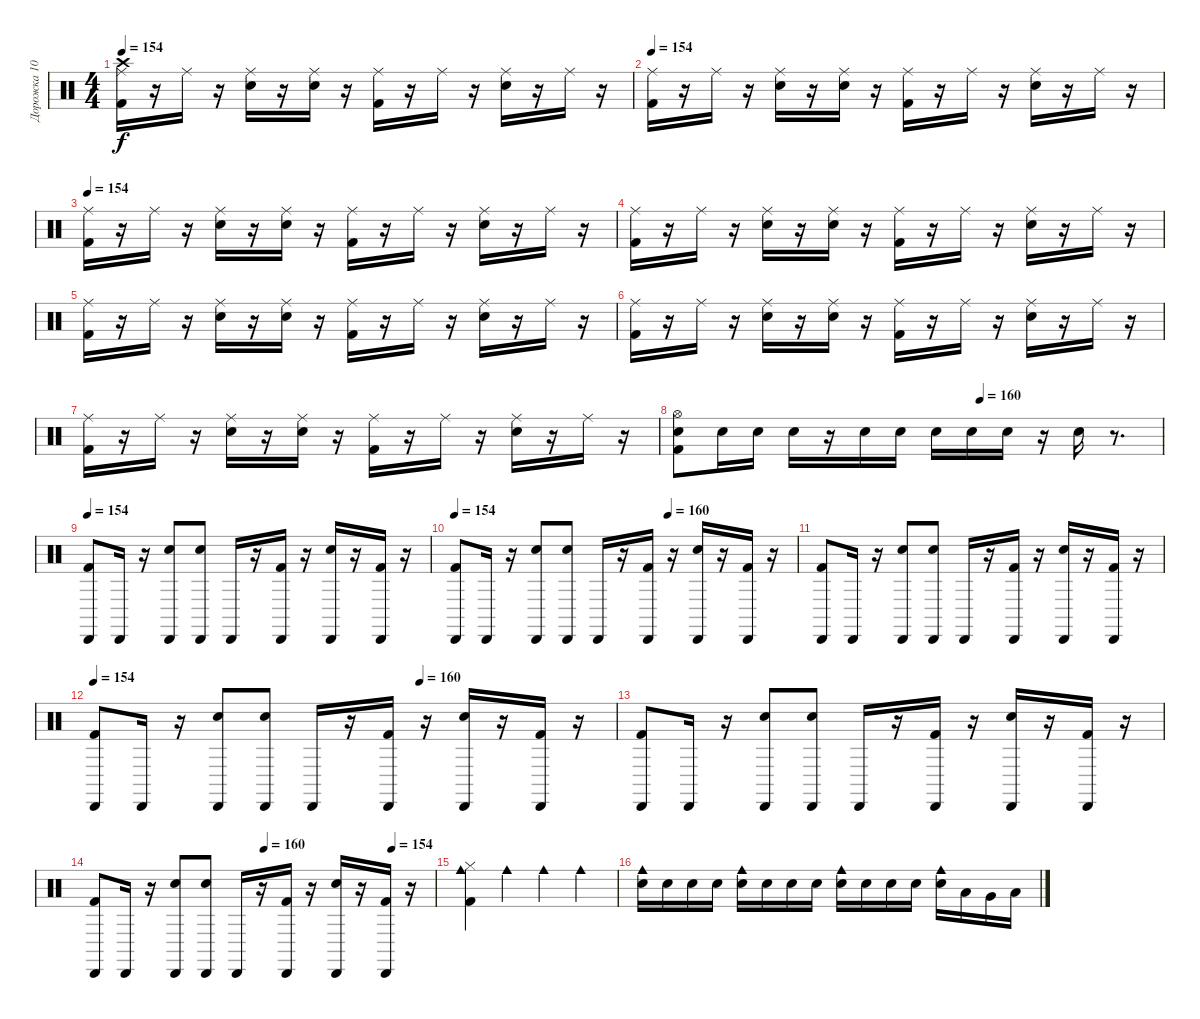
\track ("Дорожка 10" "Дорожка 10") {instrument percussion}
\staff {score}
\articulation defaults
\ts (4 4)
\tempo 154
\clef neutral
\ks c
("Ride (middle)" "Crash high (hit)" "Kick (hit) 2").16{dy f} r.16 "Ride (middle)".16 r.16 ("Ride (middle)" "Electric Snare (hit)").16 r.16 ("Ride (middle)" "Electric Snare (hit)").16 r.16 ("Ride (middle)" "Kick (hit) 2").16 r.16 "Ride (middle)".16 r.16 ("Ride (middle)" "Electric Snare (hit)").16 r.16 "Ride (middle)".16 r.16 |
\tempo 154
("Ride (middle)" "Kick (hit) 2").16 r.16 "Ride (middle)".16 r.16 ("Ride (middle)" "Electric Snare (hit)").16 r.16 ("Ride (middle)" "Electric Snare (hit)").16 r.16 ("Ride (middle)" "Kick (hit) 2").16 r.16 "Ride (middle)".16 r.16 ("Ride (middle)" "Electric Snare (hit)").16 r.16 "Ride (middle)".16 r.16 |
\tempo 154
("Ride (middle)" "Kick (hit) 2").16 r.16 "Ride (middle)".16 r.16 ("Ride (middle)" "Electric Snare (hit)").16 r.16 ("Ride (middle)" "Electric Snare (hit)").16 r.16 ("Ride (middle)" "Kick (hit) 2").16 r.16 "Ride (middle)".16 r.16 ("Ride (middle)" "Electric Snare (hit)").16 r.16 "Ride (middle)".16 r.16 |
("Ride (middle)" "Kick (hit) 2").16 r.16 "Ride (middle)".16 r.16 ("Ride (middle)" "Electric Snare (hit)").16 r.16 ("Ride (middle)" "Electric Snare (hit)").16 r.16 ("Ride (middle)" "Kick (hit) 2").16 r.16 "Ride (middle)".16 r.16 ("Ride (middle)" "Electric Snare (hit)").16 r.16 "Ride (middle)".16 r.16 |
("Ride (middle)" "Kick (hit) 2").16 r.16 "Ride (middle)".16 r.16 ("Ride (middle)" "Electric Snare (hit)").16 r.16 ("Ride (middle)" "Electric Snare (hit)").16 r.16 ("Ride (middle)" "Kick (hit) 2").16 r.16 "Ride (middle)".16 r.16 ("Ride (middle)" "Electric Snare (hit)").16 r.16 "Ride (middle)".16 r.16 |
("Ride (middle)" "Kick (hit) 2").16 r.16 "Ride (middle)".16 r.16 ("Ride (middle)" "Electric Snare (hit)").16 r.16 ("Ride (middle)" "Electric Snare (hit)").16 r.16 ("Ride (middle)" "Kick (hit) 2").16 r.16 "Ride (middle)".16 r.16 ("Ride (middle)" "Electric Snare (hit)").16 r.16 "Ride (middle)".16 r.16 |
("Ride (middle)" "Kick (hit) 2").16 r.16 "Ride (middle)".16 r.16 ("Ride (middle)" "Electric Snare (hit)").16 r.16 ("Ride (middle)" "Electric Snare (hit)").16 r.16 ("Ride (middle)" "Kick (hit) 2").16 r.16 "Ride (middle)".16 r.16 ("Ride (middle)" "Electric Snare (hit)").16 r.16 "Ride (middle)".16 r.16 |
\tempo (160 0.625)
("Kick (hit) 2" "Electric Snare (hit)" "Hi-Hat (open)").8 "Electric Snare (hit)".16 "Electric Snare (hit)".16 "Electric Snare (hit)".16 r.16 "Electric Snare (hit)".16 "Electric Snare (hit)".16 "Electric Snare (hit)".16 "Electric Snare (hit)".16 "Electric Snare (hit)".16 r.16 "Electric Snare (hit)".16 r.8{d} |
\tempo 154
("Kick (hit) 2" "Cabasa (hit)").8 "Cabasa (hit)".16 r.16 ("Electric Snare (hit)" "Cabasa (hit)").8 ("Electric Snare (hit)" "Cabasa (hit)").8 "Cabasa (hit)".16 r.16 ("Kick (hit) 2" "Cabasa (hit)").16 r.16 ("Electric Snare (hit)" "Cabasa (hit)").16 r.16 ("Kick (hit) 2" "Cabasa (hit)").16 r.16 |
\tempo 154
\tempo (160 0.625)
("Cabasa (hit)" "Kick (hit) 2").8 "Cabasa (hit)".16 r.16 ("Cabasa (hit)" "Electric Snare (hit)").8 ("Cabasa (hit)" "Electric Snare (hit)").8 "Cabasa (hit)".16 r.16 ("Cabasa (hit)" "Kick (hit) 2").16 r.16 ("Cabasa (hit)" "Electric Snare (hit)").16 r.16 ("Cabasa (hit)" "Kick (hit) 2").16 r.16 |
("Cabasa (hit)" "Kick (hit) 2").8 "Cabasa (hit)".16 r.16 ("Cabasa (hit)" "Electric Snare (hit)").8 ("Cabasa (hit)" "Electric Snare (hit)").8 "Cabasa (hit)".16 r.16 ("Cabasa (hit)" "Kick (hit) 2").16 r.16 ("Cabasa (hit)" "Electric Snare (hit)").16 r.16 ("Cabasa (hit)" "Kick (hit) 2").16 r.16 |
\tempo 154
\tempo (160 0.625)
("Cabasa (hit)" "Kick (hit) 2").8 "Cabasa (hit)".16 r.16 ("Cabasa (hit)" "Electric Snare (hit)").8 ("Cabasa (hit)" "Electric Snare (hit)").8 "Cabasa (hit)".16 r.16 ("Cabasa (hit)" "Kick (hit) 2").16 r.16 ("Cabasa (hit)" "Electric Snare (hit)").16 r.16 ("Cabasa (hit)" "Kick (hit) 2").16 r.16 |
("Cabasa (hit)" "Kick (hit) 2").8 "Cabasa (hit)".16 r.16 ("Electric Snare (hit)" "Cabasa (hit)").8 ("Electric Snare (hit)" "Cabasa (hit)").8 "Cabasa (hit)".16 r.16 ("Kick (hit) 2" "Cabasa (hit)").16 r.16 ("Electric Snare (hit)" "Cabasa (hit)").16 r.16 ("Kick (hit) 2" "Cabasa (hit)").16 r.16 |
\tempo (160 0.5)
\tempo (154 0.875)
("Cabasa (hit)" "Kick (hit) 2").8 "Cabasa (hit)".16 r.16 ("Electric Snare (hit)" "Cabasa (hit)").8 ("Electric Snare (hit)" "Cabasa (hit)").8 "Cabasa (hit)".16 r.16 ("Kick (hit) 2" "Cabasa (hit)").16 r.16 ("Electric Snare (hit)" "Cabasa (hit)").16 r.16 ("Kick (hit) 2" "Cabasa (hit)").16 r.16 |
("Cowbell medium (hit)" "Hi-Hat (closed)" "Kick (hit) 2").4 "Cowbell medium (hit)".4 "Cowbell medium (hit)".4 "Cowbell medium (hit)".4 |
("Electric Snare (hit)" "Cowbell medium (hit)").16 "Electric Snare (hit)".16 "Electric Snare (hit)".16 "Electric Snare (hit)".16 ("Electric Snare (hit)" "Cowbell medium (hit)").16 "Electric Snare (hit)".16 "Electric Snare (hit)".16 "Electric Snare (hit)".16 ("Electric Snare (hit)" "Cowbell medium (hit)").16 "Electric Snare (hit)".16 "Snare (hit) 2".16 "Electric Snare (hit)".16 ("Electric Snare (hit)" "Cowbell medium (hit)").16 "Low Tom (hit)".16 "Very Low Tom (hit)".16 "Low Floor Tom (hit)".16
